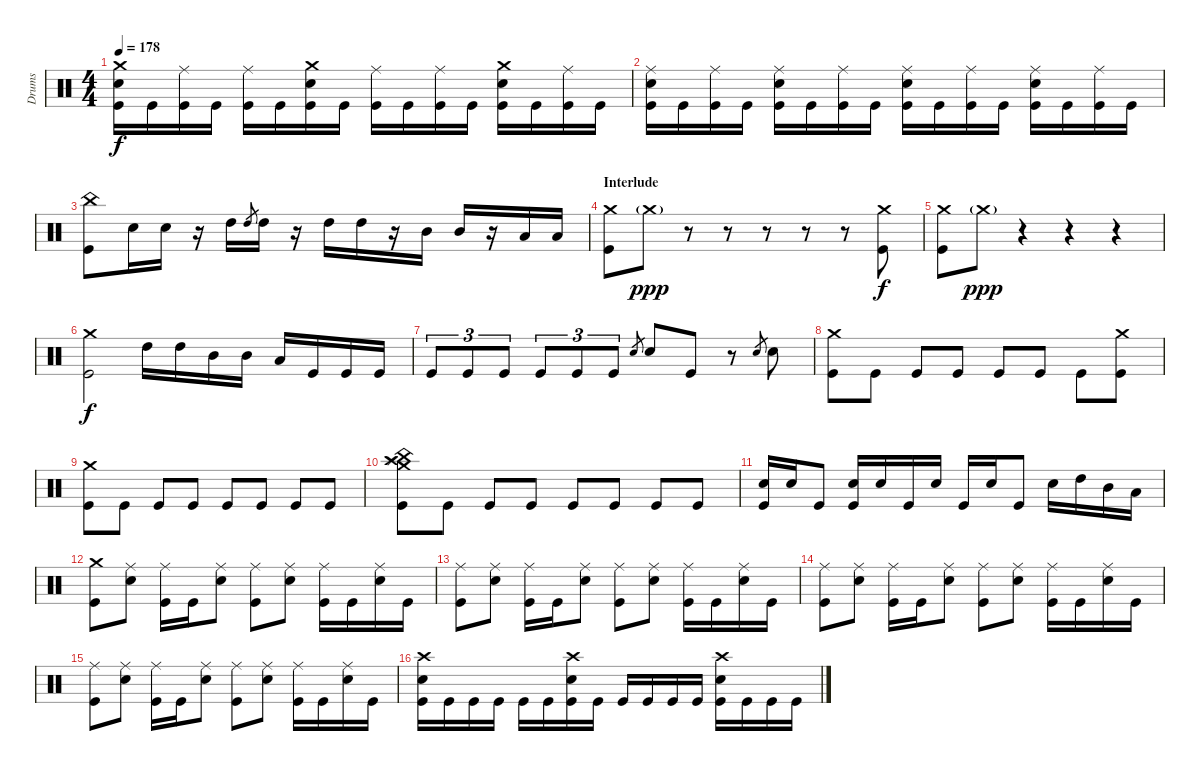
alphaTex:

\track ("Drums" "Drums") {instrument percussion}
\staff {score}
\articulation defaults
\ts (4 4)
\tempo 178
\clef neutral
\ks c
("Crash medium (hit)" "Electric Snare (hit)" "Kick (hit)").16{dy f} "Kick (hit)".16 ("Ride (middle)" "Kick (hit)").16 "Kick (hit)".16 ("Ride (middle)" "Kick (hit)").16 "Kick (hit)".16 ("Crash medium (hit)" "Electric Snare (hit)" "Kick (hit)").16 "Kick (hit)".16 ("Ride (middle)" "Kick (hit)").16 "Kick (hit)".16 ("Ride (middle)" "Kick (hit)").16 "Kick (hit)".16 ("Crash medium (hit)" "Electric Snare (hit)" "Kick (hit)").16 "Kick (hit)".16 ("Ride (middle)" "Kick (hit)").16 "Kick (hit)".16 |
("Ride (middle)" "Electric Snare (hit)" "Kick (hit)").16 "Kick (hit)".16 ("Ride (middle)" "Kick (hit)").16 "Kick (hit)".16 ("Ride (middle)" "Electric Snare (hit)" "Kick (hit)").16 "Kick (hit)".16 ("Ride (middle)" "Kick (hit)").16 "Kick (hit)".16 ("Ride (middle)" "Electric Snare (hit)" "Kick (hit)").16 "Kick (hit)".16 ("Ride (middle)" "Kick (hit)").16 "Kick (hit)".16 ("Ride (middle)" "Electric Snare (hit)" "Kick (hit)").16 "Kick (hit)".16 ("Ride (middle)" "Kick (hit)").16 "Kick (hit)".16 |
("China (hit)" "Kick (hit)").8 "Electric Snare (hit)".16 "Electric Snare (hit)".16 r.16 "High Tom (hit)".16 "High Tom (hit)".8{gr} "High Tom (hit)".16 r.16 "High Tom (hit)".16 "High Tom (hit)".16 r.16 "Mid Tom (hit)".16 "Mid Tom (hit)".16 r.16 "Low Tom (hit)".16 "Low Tom (hit)".16 |
\section ("" "Interlude")
("Crash medium (hit)" "Kick (hit)").8 "Crash medium (hit)"{g}.8{dy ppp} r.8 r.8 r.8 r.8 r.8 ("Crash medium (hit)" "Kick (hit)").8{dy f} |
("Crash medium (hit)" "Kick (hit)").8 "Crash medium (hit)"{g}.8{dy ppp} r.4 r.4 r.4 |
("Crash medium (hit)" "Kick (hit)").2{dy f} "High Tom (hit)".16 "High Tom (hit)".16 "Mid Tom (hit)".16 "Mid Tom (hit)".16 "Low Tom (hit)".16 "Kick (hit)".16 "Kick (hit)".16 "Kick (hit)".16 |
"Kick (hit)".8{tu (3 2)} "Kick (hit)".8{tu (3 2)} "Kick (hit)".8{tu (3 2)} "Kick (hit)".8{tu (3 2)} "Kick (hit)".8{tu (3 2)} "Kick (hit)".8{tu (3 2)} "Electric Snare (hit)".8{gr} "Electric Snare (hit)".8 "Kick (hit)".8 r.8 "Electric Snare (hit)".8{gr} "Electric Snare (hit)".8 |
("Crash medium (hit)" "Kick (hit)").8 "Kick (hit)".8 "Kick (hit)".8 "Kick (hit)".8 "Kick (hit)".8 "Kick (hit)".8 "Kick (hit)".8 ("Crash medium (hit)" "Kick (hit)").8 |
("Crash medium (hit)" "Kick (hit)").8 "Kick (hit)".8 "Kick (hit)".8 "Kick (hit)".8 "Kick (hit)".8 "Kick (hit)".8 "Kick (hit)".8 "Kick (hit)".8 |
("Crash medium (hit)" "Crash high (hit)" "China (hit)" "Splash (hit)" "Kick (hit)").8 "Kick (hit)".8 "Kick (hit)".8 "Kick (hit)".8 "Kick (hit)".8 "Kick (hit)".8 "Kick (hit)".8 "Kick (hit)".8 |
("Electric Snare (hit)" "Kick (hit)").16 "Electric Snare (hit)".16 "Kick (hit)".8 ("Electric Snare (hit)" "Kick (hit)").16 "Electric Snare (hit)".16 "Kick (hit)".16 "Electric Snare (hit)".16 "Kick (hit)".16 "Electric Snare (hit)".16 "Kick (hit)".8 "Electric Snare (hit)".16 "High Tom (hit)".16 "Mid Tom (hit)".16 "Low Tom (hit)".16 |
("Crash medium (hit)" "Kick (hit)").8 ("Ride (middle)" "Electric Snare (hit)").8 ("Ride (middle)" "Kick (hit)").16 "Kick (hit)".16 ("Ride (middle)" "Electric Snare (hit)").8 ("Ride (middle)" "Kick (hit)").8 ("Ride (middle)" "Electric Snare (hit)").8 ("Ride (middle)" "Kick (hit)").16 "Kick (hit)".16 ("Ride (middle)" "Electric Snare (hit)").16 "Kick (hit)".16 |
("Ride (middle)" "Kick (hit)").8 ("Ride (middle)" "Electric Snare (hit)").8 ("Ride (middle)" "Kick (hit)").16 "Kick (hit)".16 ("Ride (middle)" "Electric Snare (hit)").8 ("Ride (middle)" "Kick (hit)").8 ("Ride (middle)" "Electric Snare (hit)").8 ("Ride (middle)" "Kick (hit)").16 "Kick (hit)".16 ("Ride (middle)" "Electric Snare (hit)").16 "Kick (hit)".16 |
("Ride (middle)" "Kick (hit)").8 ("Ride (middle)" "Electric Snare (hit)").8 ("Ride (middle)" "Kick (hit)").16 "Kick (hit)".16 ("Ride (middle)" "Electric Snare (hit)").8 ("Ride (middle)" "Kick (hit)").8 ("Ride (middle)" "Electric Snare (hit)").8 ("Ride (middle)" "Kick (hit)").16 "Kick (hit)".16 ("Ride (middle)" "Electric Snare (hit)").16 "Kick (hit)".16 |
("Ride (middle)" "Kick (hit)").8 ("Ride (middle)" "Electric Snare (hit)").8 ("Ride (middle)" "Kick (hit)").16 "Kick (hit)".16 ("Ride (middle)" "Electric Snare (hit)").8 ("Ride (middle)" "Kick (hit)").8 ("Ride (middle)" "Electric Snare (hit)").8 ("Ride (middle)" "Kick (hit)").16 "Kick (hit)".16 ("Ride (middle)" "Electric Snare (hit)").16 "Kick (hit)".16 |
("Crash high (hit)" "Electric Snare (hit)" "Kick (hit)").16 "Kick (hit)".16 "Kick (hit)".16 "Kick (hit)".16 "Kick (hit)".16 "Kick (hit)".16 ("Crash high (hit)" "Electric Snare (hit)" "Kick (hit)").16 "Kick (hit)".16 "Kick (hit)".16 "Kick (hit)".16 "Kick (hit)".16 "Kick (hit)".16 ("Crash high (hit)" "Electric Snare (hit)" "Kick (hit)").16 "Kick (hit)".16 "Kick (hit)".16 "Kick (hit)".16
